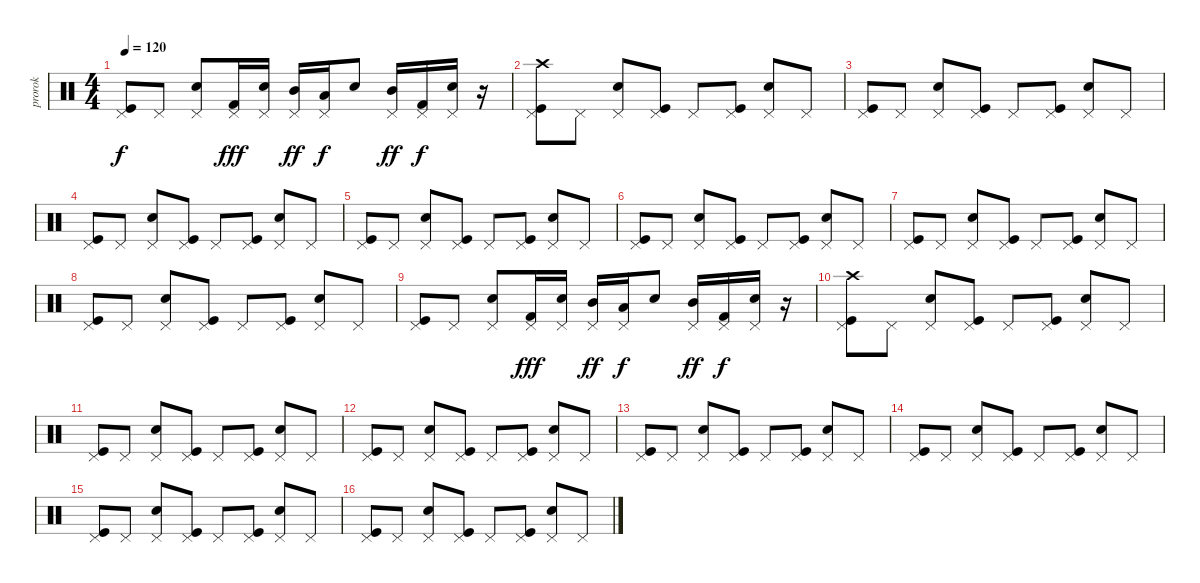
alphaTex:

\track ("prorok" "prorok") {instrument percussion}
\staff {score}
\articulation defaults
\ts (4 4)
\tempo 120
\clef neutral
\ks c
("Kick (hit)" "Pedal Hi-Hat (hit)").8{dy f} "Pedal Hi-Hat (hit)".8 ("Electric Snare (hit)" "Pedal Hi-Hat (hit)").8 ("Kick (hit) 2" "Pedal Hi-Hat (hit)").16{dy fff} ("Electric Snare (hit)" "Pedal Hi-Hat (hit)").16 ("Mid Tom (hit)" "Pedal Hi-Hat (hit)").16{dy ff} ("Low Tom (hit)" "Pedal Hi-Hat (hit)").16{dy f} "Electric Snare (hit)".8 ("Mid Tom (hit)" "Pedal Hi-Hat (hit)").16{dy ff} ("Kick (hit) 2" "Pedal Hi-Hat (hit)").16{dy f} ("Electric Snare (hit)" "Pedal Hi-Hat (hit)").16 r.16 |
("Kick (hit)" "Pedal Hi-Hat (hit)" "Crash high (hit)").8 "Pedal Hi-Hat (hit)".8 ("Electric Snare (hit)" "Pedal Hi-Hat (hit)").8 ("Kick (hit)" "Pedal Hi-Hat (hit)").8 "Pedal Hi-Hat (hit)".8 ("Kick (hit)" "Pedal Hi-Hat (hit)").8 ("Electric Snare (hit)" "Pedal Hi-Hat (hit)").8 "Pedal Hi-Hat (hit)".8 |
("Kick (hit)" "Pedal Hi-Hat (hit)").8 "Pedal Hi-Hat (hit)".8 ("Electric Snare (hit)" "Pedal Hi-Hat (hit)").8 ("Kick (hit)" "Pedal Hi-Hat (hit)").8 "Pedal Hi-Hat (hit)".8 ("Kick (hit)" "Pedal Hi-Hat (hit)").8 ("Electric Snare (hit)" "Pedal Hi-Hat (hit)").8 "Pedal Hi-Hat (hit)".8 |
("Kick (hit)" "Pedal Hi-Hat (hit)").8 "Pedal Hi-Hat (hit)".8 ("Electric Snare (hit)" "Pedal Hi-Hat (hit)").8 ("Kick (hit)" "Pedal Hi-Hat (hit)").8 "Pedal Hi-Hat (hit)".8 ("Kick (hit)" "Pedal Hi-Hat (hit)").8 ("Electric Snare (hit)" "Pedal Hi-Hat (hit)").8 "Pedal Hi-Hat (hit)".8 |
("Kick (hit)" "Pedal Hi-Hat (hit)").8 "Pedal Hi-Hat (hit)".8 ("Electric Snare (hit)" "Pedal Hi-Hat (hit)").8 ("Kick (hit)" "Pedal Hi-Hat (hit)").8 "Pedal Hi-Hat (hit)".8 ("Kick (hit)" "Pedal Hi-Hat (hit)").8 ("Electric Snare (hit)" "Pedal Hi-Hat (hit)").8 "Pedal Hi-Hat (hit)".8 |
("Kick (hit)" "Pedal Hi-Hat (hit)").8 "Pedal Hi-Hat (hit)".8 ("Electric Snare (hit)" "Pedal Hi-Hat (hit)").8 ("Kick (hit)" "Pedal Hi-Hat (hit)").8 "Pedal Hi-Hat (hit)".8 ("Kick (hit)" "Pedal Hi-Hat (hit)").8 ("Electric Snare (hit)" "Pedal Hi-Hat (hit)").8 "Pedal Hi-Hat (hit)".8 |
("Kick (hit)" "Pedal Hi-Hat (hit)").8 "Pedal Hi-Hat (hit)".8 ("Electric Snare (hit)" "Pedal Hi-Hat (hit)").8 ("Kick (hit)" "Pedal Hi-Hat (hit)").8 "Pedal Hi-Hat (hit)".8 ("Kick (hit)" "Pedal Hi-Hat (hit)").8 ("Electric Snare (hit)" "Pedal Hi-Hat (hit)").8 "Pedal Hi-Hat (hit)".8 |
("Kick (hit)" "Pedal Hi-Hat (hit)").8 "Pedal Hi-Hat (hit)".8 ("Electric Snare (hit)" "Pedal Hi-Hat (hit)").8 ("Kick (hit)" "Pedal Hi-Hat (hit)").8 "Pedal Hi-Hat (hit)".8 ("Kick (hit)" "Pedal Hi-Hat (hit)").8 ("Electric Snare (hit)" "Pedal Hi-Hat (hit)").8 "Pedal Hi-Hat (hit)".8 |
("Kick (hit)" "Pedal Hi-Hat (hit)").8 "Pedal Hi-Hat (hit)".8 ("Electric Snare (hit)" "Pedal Hi-Hat (hit)").8 ("Kick (hit) 2" "Pedal Hi-Hat (hit)").16{dy fff} ("Electric Snare (hit)" "Pedal Hi-Hat (hit)").16 ("Mid Tom (hit)" "Pedal Hi-Hat (hit)").16{dy ff} ("Low Tom (hit)" "Pedal Hi-Hat (hit)").16{dy f} "Electric Snare (hit)".8 ("Mid Tom (hit)" "Pedal Hi-Hat (hit)").16{dy ff} ("Kick (hit) 2" "Pedal Hi-Hat (hit)").16{dy f} ("Electric Snare (hit)" "Pedal Hi-Hat (hit)").16 r.16 |
("Kick (hit)" "Pedal Hi-Hat (hit)" "Crash high (hit)").8 "Pedal Hi-Hat (hit)".8 ("Electric Snare (hit)" "Pedal Hi-Hat (hit)").8 ("Kick (hit)" "Pedal Hi-Hat (hit)").8 "Pedal Hi-Hat (hit)".8 ("Kick (hit)" "Pedal Hi-Hat (hit)").8 ("Electric Snare (hit)" "Pedal Hi-Hat (hit)").8 "Pedal Hi-Hat (hit)".8 |
("Kick (hit)" "Pedal Hi-Hat (hit)").8 "Pedal Hi-Hat (hit)".8 ("Electric Snare (hit)" "Pedal Hi-Hat (hit)").8 ("Kick (hit)" "Pedal Hi-Hat (hit)").8 "Pedal Hi-Hat (hit)".8 ("Kick (hit)" "Pedal Hi-Hat (hit)").8 ("Electric Snare (hit)" "Pedal Hi-Hat (hit)").8 "Pedal Hi-Hat (hit)".8 |
("Kick (hit)" "Pedal Hi-Hat (hit)").8 "Pedal Hi-Hat (hit)".8 ("Electric Snare (hit)" "Pedal Hi-Hat (hit)").8 ("Kick (hit)" "Pedal Hi-Hat (hit)").8 "Pedal Hi-Hat (hit)".8 ("Kick (hit)" "Pedal Hi-Hat (hit)").8 ("Electric Snare (hit)" "Pedal Hi-Hat (hit)").8 "Pedal Hi-Hat (hit)".8 |
("Kick (hit)" "Pedal Hi-Hat (hit)").8 "Pedal Hi-Hat (hit)".8 ("Electric Snare (hit)" "Pedal Hi-Hat (hit)").8 ("Kick (hit)" "Pedal Hi-Hat (hit)").8 "Pedal Hi-Hat (hit)".8 ("Kick (hit)" "Pedal Hi-Hat (hit)").8 ("Electric Snare (hit)" "Pedal Hi-Hat (hit)").8 "Pedal Hi-Hat (hit)".8 |
("Kick (hit)" "Pedal Hi-Hat (hit)").8 "Pedal Hi-Hat (hit)".8 ("Electric Snare (hit)" "Pedal Hi-Hat (hit)").8 ("Kick (hit)" "Pedal Hi-Hat (hit)").8 "Pedal Hi-Hat (hit)".8 ("Kick (hit)" "Pedal Hi-Hat (hit)").8 ("Electric Snare (hit)" "Pedal Hi-Hat (hit)").8 "Pedal Hi-Hat (hit)".8 |
("Kick (hit)" "Pedal Hi-Hat (hit)").8 "Pedal Hi-Hat (hit)".8 ("Electric Snare (hit)" "Pedal Hi-Hat (hit)").8 ("Kick (hit)" "Pedal Hi-Hat (hit)").8 "Pedal Hi-Hat (hit)".8 ("Kick (hit)" "Pedal Hi-Hat (hit)").8 ("Electric Snare (hit)" "Pedal Hi-Hat (hit)").8 "Pedal Hi-Hat (hit)".8 |
("Kick (hit)" "Pedal Hi-Hat (hit)").8 "Pedal Hi-Hat (hit)".8 ("Electric Snare (hit)" "Pedal Hi-Hat (hit)").8 ("Kick (hit)" "Pedal Hi-Hat (hit)").8 "Pedal Hi-Hat (hit)".8 ("Kick (hit)" "Pedal Hi-Hat (hit)").8 ("Electric Snare (hit)" "Pedal Hi-Hat (hit)").8 "Pedal Hi-Hat (hit)".8
